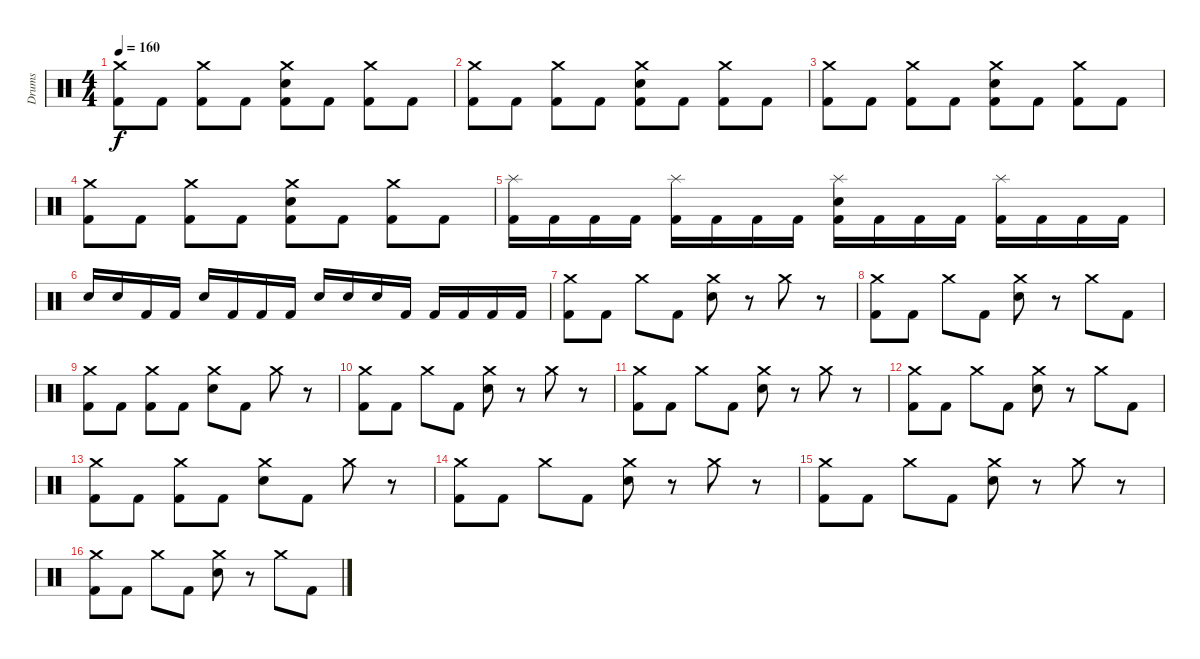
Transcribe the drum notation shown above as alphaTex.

\track ("Drums" "Drums") {instrument percussion}
\staff {score}
\articulation defaults
\ts (4 4)
\tempo 160
\clef neutral
\ks c
("Crash medium (hit)" "Kick (hit) 2").8{dy f} "Kick (hit) 2".8 ("Crash medium (hit)" "Kick (hit) 2").8 "Kick (hit) 2".8 ("Crash medium (hit)" "Snare (hit) 2" "Kick (hit) 2").8 "Kick (hit) 2".8 ("Crash medium (hit)" "Kick (hit) 2").8 "Kick (hit) 2".8 |
("Crash medium (hit)" "Kick (hit) 2").8 "Kick (hit) 2".8 ("Crash medium (hit)" "Kick (hit) 2").8 "Kick (hit) 2".8 ("Crash medium (hit)" "Snare (hit) 2" "Kick (hit) 2").8 "Kick (hit) 2".8 ("Crash medium (hit)" "Kick (hit) 2").8 "Kick (hit) 2".8 |
("Crash medium (hit)" "Kick (hit) 2").8 "Kick (hit) 2".8 ("Crash medium (hit)" "Kick (hit) 2").8 "Kick (hit) 2".8 ("Crash medium (hit)" "Snare (hit) 2" "Kick (hit) 2").8 "Kick (hit) 2".8 ("Crash medium (hit)" "Kick (hit) 2").8 "Kick (hit) 2".8 |
("Crash medium (hit)" "Kick (hit) 2").8 "Kick (hit) 2".8 ("Crash medium (hit)" "Kick (hit) 2").8 "Kick (hit) 2".8 ("Crash medium (hit)" "Snare (hit) 2" "Kick (hit) 2").8 "Kick (hit) 2".8 ("Crash medium (hit)" "Kick (hit) 2").8 "Kick (hit) 2".8 |
("Splash (hit)" "Kick (hit) 2").16 "Kick (hit) 2".16 "Kick (hit) 2".16 "Kick (hit) 2".16 ("Splash (hit)" "Kick (hit) 2").16 "Kick (hit) 2".16 "Kick (hit) 2".16 "Kick (hit) 2".16 ("Splash (hit)" "Snare (hit) 2" "Kick (hit) 2").16 "Kick (hit) 2".16 "Kick (hit) 2".16 "Kick (hit) 2".16 ("Splash (hit)" "Kick (hit) 2").16 "Kick (hit) 2".16 "Kick (hit) 2".16 "Kick (hit) 2".16 |
"Snare (hit) 2".16 "Snare (hit) 2".16 "Kick (hit) 2".16 "Kick (hit) 2".16 "Snare (hit) 2".16 "Kick (hit) 2".16 "Kick (hit) 2".16 "Kick (hit) 2".16 "Snare (hit) 2".16 "Snare (hit) 2".16 "Snare (hit) 2".16 "Kick (hit) 2".16 "Kick (hit) 2".16 "Kick (hit) 2".16 "Kick (hit) 2".16 "Kick (hit) 2".16 |
("Crash medium (hit)" "Kick (hit) 2").8 "Kick (hit) 2".8 "Crash medium (hit)".8 "Kick (hit) 2".8 ("Crash medium (hit)" "Snare (hit) 2").8 r.8 "Crash medium (hit)".8 r.8 |
("Crash medium (hit)" "Kick (hit) 2").8 "Kick (hit) 2".8 "Crash medium (hit)".8 "Kick (hit) 2".8 ("Crash medium (hit)" "Snare (hit) 2").8 r.8 "Crash medium (hit)".8 "Kick (hit) 2".8 |
("Crash medium (hit)" "Kick (hit) 2").8 "Kick (hit) 2".8 ("Crash medium (hit)" "Kick (hit) 2").8 "Kick (hit) 2".8 ("Crash medium (hit)" "Snare (hit) 2").8 "Kick (hit) 2".8 "Crash medium (hit)".8 r.8 |
("Crash medium (hit)" "Kick (hit) 2").8 "Kick (hit) 2".8 "Crash medium (hit)".8 "Kick (hit) 2".8 ("Crash medium (hit)" "Snare (hit) 2").8 r.8 "Crash medium (hit)".8 r.8 |
("Crash medium (hit)" "Kick (hit) 2").8 "Kick (hit) 2".8 "Crash medium (hit)".8 "Kick (hit) 2".8 ("Crash medium (hit)" "Snare (hit) 2").8 r.8 "Crash medium (hit)".8 r.8 |
("Crash medium (hit)" "Kick (hit) 2").8 "Kick (hit) 2".8 "Crash medium (hit)".8 "Kick (hit) 2".8 ("Crash medium (hit)" "Snare (hit) 2").8 r.8 "Crash medium (hit)".8 "Kick (hit) 2".8 |
("Crash medium (hit)" "Kick (hit) 2").8 "Kick (hit) 2".8 ("Crash medium (hit)" "Kick (hit) 2").8 "Kick (hit) 2".8 ("Crash medium (hit)" "Snare (hit) 2").8 "Kick (hit) 2".8 "Crash medium (hit)".8 r.8 |
("Crash medium (hit)" "Kick (hit) 2").8 "Kick (hit) 2".8 "Crash medium (hit)".8 "Kick (hit) 2".8 ("Crash medium (hit)" "Snare (hit) 2").8 r.8 "Crash medium (hit)".8 r.8 |
("Crash medium (hit)" "Kick (hit) 2").8 "Kick (hit) 2".8 "Crash medium (hit)".8 "Kick (hit) 2".8 ("Crash medium (hit)" "Snare (hit) 2").8 r.8 "Crash medium (hit)".8 r.8 |
("Crash medium (hit)" "Kick (hit) 2").8 "Kick (hit) 2".8 "Crash medium (hit)".8 "Kick (hit) 2".8 ("Crash medium (hit)" "Snare (hit) 2").8 r.8 "Crash medium (hit)".8 "Kick (hit) 2".8
